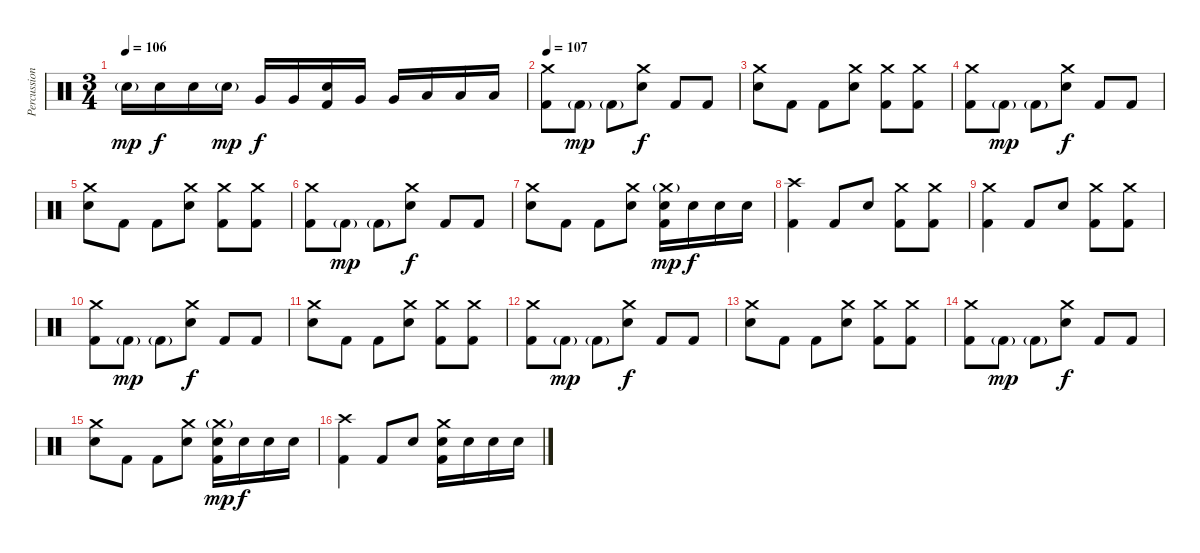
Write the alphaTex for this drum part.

\track ("Percussions" "Percussion") {instrument percussion}
\staff {score}
\articulation defaults
\ts (3 4)
\tempo 106
\clef neutral
\ks c "Snare (hit) 2"{g}.16{dy mp} "Snare (hit) 2".16{dy f} "Snare (hit) 2".16 "Snare (hit) 2"{g}.16{dy mp} "Very Low Tom (hit)".16{dy f} "Very Low Tom (hit)".16
("Snare (hit) 2" "Kick (hit) 2").16 "Very Low Tom (hit)".16 "Very Low Tom (hit)".16 "Low Floor Tom (hit)".16 "Low Floor Tom (hit)".16 "Low Floor Tom (hit)".16 |
\tempo 107
("Crash medium (hit)" "Kick (hit) 2").8 "Kick (hit) 2"{g}.8{dy mp} "Kick (hit) 2"{g}.8 ("Crash medium (hit)" "Snare (hit) 2").8{dy f} "Kick (hit) 2".8 "Kick (hit) 2".8 |
("Crash medium (hit)" "Snare (hit) 2").8 "Kick (hit) 2".8 "Kick (hit) 2".8 ("Crash medium (hit)" "Snare (hit) 2").8 ("Crash medium (hit)" "Kick (hit) 2").8 ("Crash medium (hit)" "Kick (hit) 2").8 |
("Crash medium (hit)" "Kick (hit) 2").8 "Kick (hit) 2"{g}.8{dy mp} "Kick (hit) 2"{g}.8 ("Crash medium (hit)" "Snare (hit) 2").8{dy f} "Kick (hit) 2".8 "Kick (hit) 2".8 |
("Crash medium (hit)" "Snare (hit) 2").8 "Kick (hit) 2".8 "Kick (hit) 2".8 ("Crash medium (hit)" "Snare (hit) 2").8 ("Crash medium (hit)" "Kick (hit) 2").8 ("Crash medium (hit)" "Kick (hit) 2").8 |
("Crash medium (hit)" "Kick (hit) 2").8 "Kick (hit) 2"{g}.8{dy mp} "Kick (hit) 2"{g}.8 ("Crash medium (hit)" "Snare (hit) 2").8{dy f} "Kick (hit) 2".8 "Kick (hit) 2".8 |
("Crash medium (hit)" "Snare (hit) 2").8 "Kick (hit) 2".8 "Kick (hit) 2".8 ("Crash medium (hit)" "Snare (hit) 2").8 ("Crash medium (hit)"{g} "Snare (hit) 2" "Kick (hit) 2").16{dy mp} "Snare (hit) 2".16{dy f} "Snare (hit) 2".16 "Snare (hit) 2".16 |
("Crash high (hit)" "Kick (hit) 2").4 "Kick (hit) 2".8 "Snare (hit) 2".8 ("Crash medium (hit)" "Kick (hit) 2").8 ("Crash medium (hit)" "Kick (hit) 2").8 |
("Crash medium (hit)" "Kick (hit) 2").4 "Kick (hit) 2".8 "Snare (hit) 2".8 ("Crash medium (hit)" "Kick (hit) 2").8 ("Crash medium (hit)" "Kick (hit) 2").8 |
("Crash medium (hit)" "Kick (hit) 2").8 "Kick (hit) 2"{g}.8{dy mp} "Kick (hit) 2"{g}.8 ("Crash medium (hit)" "Snare (hit) 2").8{dy f} "Kick (hit) 2".8 "Kick (hit) 2".8 |
("Crash medium (hit)" "Snare (hit) 2").8 "Kick (hit) 2".8 "Kick (hit) 2".8 ("Crash medium (hit)" "Snare (hit) 2").8 ("Crash medium (hit)" "Kick (hit) 2").8 ("Crash medium (hit)" "Kick (hit) 2").8 |
("Crash medium (hit)" "Kick (hit) 2").8 "Kick (hit) 2"{g}.8{dy mp} "Kick (hit) 2"{g}.8 ("Crash medium (hit)" "Snare (hit) 2").8{dy f} "Kick (hit) 2".8 "Kick (hit) 2".8 |
("Crash medium (hit)" "Snare (hit) 2").8 "Kick (hit) 2".8 "Kick (hit) 2".8 ("Crash medium (hit)" "Snare (hit) 2").8 ("Crash medium (hit)" "Kick (hit) 2").8 ("Crash medium (hit)" "Kick (hit) 2").8 |
("Crash medium (hit)" "Kick (hit) 2").8 "Kick (hit) 2"{g}.8{dy mp} "Kick (hit) 2"{g}.8 ("Crash medium (hit)" "Snare (hit) 2").8{dy f} "Kick (hit) 2".8 "Kick (hit) 2".8 |
("Crash medium (hit)" "Snare (hit) 2").8 "Kick (hit) 2".8 "Kick (hit) 2".8 ("Crash medium (hit)" "Snare (hit) 2").8 ("Crash medium (hit)"{g} "Snare (hit) 2" "Kick (hit) 2").16{dy mp} "Snare (hit) 2".16{dy f} "Snare (hit) 2".16 "Snare (hit) 2".16 |
("Crash high (hit)" "Kick (hit) 2").4 "Kick (hit) 2".8 "Snare (hit) 2".8 ("Crash medium (hit)" "Snare (hit) 2" "Kick (hit) 2").16 "Snare (hit) 2".16 "Snare (hit) 2".16 "Snare (hit) 2".16
